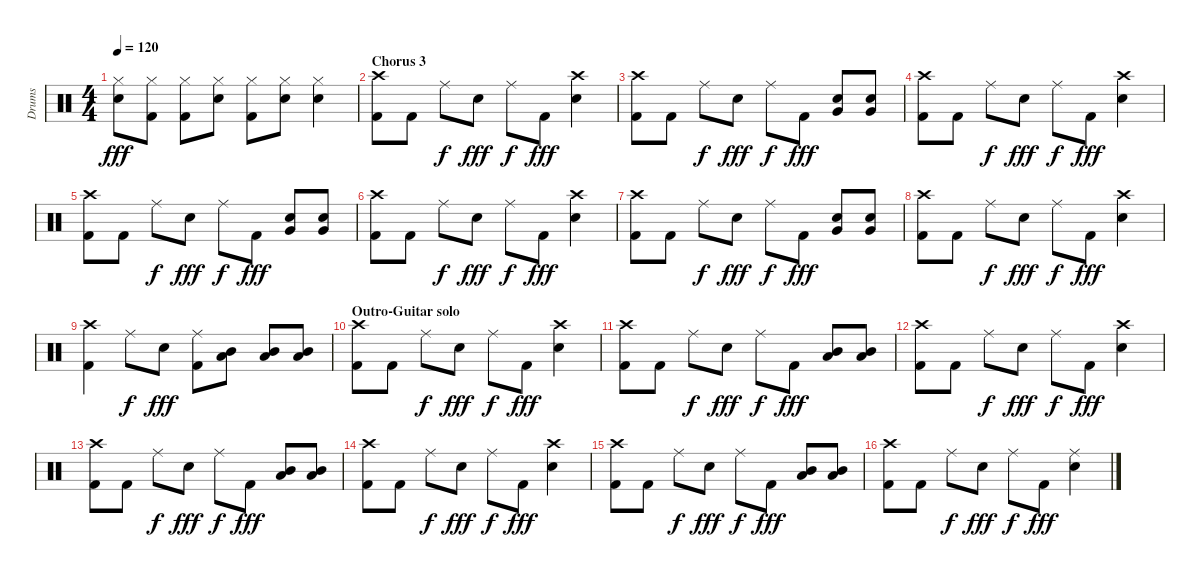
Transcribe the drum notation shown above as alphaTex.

\track ("Drums" "Drums") {instrument percussion}
\staff {score}
\articulation defaults
\ts (4 4)
\tempo 120
\clef neutral
\ks c
("Hi-Hat (closed)" "Snare (hit) 2").8{dy fff} ("Hi-Hat (closed)" "Kick (hit) 2").8 ("Hi-Hat (closed)" "Kick (hit) 2").8 ("Hi-Hat (closed)" "Snare (hit) 2").8 ("Hi-Hat (closed)" "Kick (hit) 2").8 ("Hi-Hat (closed)" "Snare (hit) 2").8 ("Hi-Hat (closed)" "Snare (hit) 2").4 |
\section ("" "Chorus 3")
("Crash high (hit)" "Kick (hit) 2").8 "Kick (hit) 2".8 "Ride (middle)".8{dy f} "Snare (hit) 2".8{dy fff} "Ride (middle)".8{dy f} "Kick (hit) 2".8{dy fff} ("Crash high (hit)" "Snare (hit) 2").4 |
("Crash high (hit)" "Kick (hit) 2").8 "Kick (hit) 2".8 "Ride (middle)".8{dy f} "Snare (hit) 2".8{dy fff} "Ride (middle)".8{dy f} "Kick (hit) 2".8{dy fff} ("Snare (hit) 2" "Very Low Tom (hit)").8 ("Snare (hit) 2" "Very Low Tom (hit)").8 |
("Crash high (hit)" "Kick (hit) 2").8 "Kick (hit) 2".8 "Ride (middle)".8{dy f} "Snare (hit) 2".8{dy fff} "Ride (middle)".8{dy f} "Kick (hit) 2".8{dy fff} ("Crash high (hit)" "Snare (hit) 2").4 |
("Crash high (hit)" "Kick (hit) 2").8 "Kick (hit) 2".8 "Ride (middle)".8{dy f} "Snare (hit) 2".8{dy fff} "Ride (middle)".8{dy f} "Kick (hit) 2".8{dy fff} ("Snare (hit) 2" "Very Low Tom (hit)").8 ("Snare (hit) 2" "Very Low Tom (hit)").8 |
("Crash high (hit)" "Kick (hit) 2").8 "Kick (hit) 2".8 "Ride (middle)".8{dy f} "Snare (hit) 2".8{dy fff} "Ride (middle)".8{dy f} "Kick (hit) 2".8{dy fff} ("Crash high (hit)" "Snare (hit) 2").4 |
("Crash high (hit)" "Kick (hit) 2").8 "Kick (hit) 2".8 "Ride (middle)".8{dy f} "Snare (hit) 2".8{dy fff} "Ride (middle)".8{dy f} "Kick (hit) 2".8{dy fff} ("Snare (hit) 2" "Very Low Tom (hit)").8 ("Snare (hit) 2" "Very Low Tom (hit)").8 |
("Crash high (hit)" "Kick (hit) 2").8 "Kick (hit) 2".8 "Ride (middle)".8{dy f} "Snare (hit) 2".8{dy fff} "Ride (middle)".8{dy f} "Kick (hit) 2".8{dy fff} ("Crash high (hit)" "Snare (hit) 2").4 |
("Crash high (hit)" "Kick (hit) 2").4 "Ride (middle)".8{dy f} "Snare (hit) 2".8{dy fff} ("Ride (middle)" "Kick (hit) 2").8 ("Mid Tom (hit)" "Low Tom (hit)").8 ("Mid Tom (hit)" "Low Tom (hit)").8 ("Mid Tom (hit)" "Low Tom (hit)").8 |
\section ("" "Outro-Guitar solo")
("Crash high (hit)" "Kick (hit) 2").8 "Kick (hit) 2".8 "Ride (middle)".8{dy f} "Snare (hit) 2".8{dy fff} "Ride (middle)".8{dy f} "Kick (hit) 2".8{dy fff} ("Crash high (hit)" "Snare (hit) 2").4 |
("Crash high (hit)" "Kick (hit) 2").8 "Kick (hit) 2".8 "Ride (middle)".8{dy f} "Snare (hit) 2".8{dy fff} "Ride (middle)".8{dy f} "Kick (hit) 2".8{dy fff} ("Mid Tom (hit)" "Low Tom (hit)").8 ("Mid Tom (hit)" "Low Tom (hit)").8 |
("Crash high (hit)" "Kick (hit) 2").8 "Kick (hit) 2".8 "Ride (middle)".8{dy f} "Snare (hit) 2".8{dy fff} "Ride (middle)".8{dy f} "Kick (hit) 2".8{dy fff} ("Crash high (hit)" "Snare (hit) 2").4 |
("Crash high (hit)" "Kick (hit) 2").8 "Kick (hit) 2".8 "Ride (middle)".8{dy f} "Snare (hit) 2".8{dy fff} "Ride (middle)".8{dy f} "Kick (hit) 2".8{dy fff} ("Mid Tom (hit)" "Low Tom (hit)").8 ("Mid Tom (hit)" "Low Tom (hit)").8 |
("Crash high (hit)" "Kick (hit) 2").8 "Kick (hit) 2".8 "Ride (middle)".8{dy f} "Snare (hit) 2".8{dy fff} "Ride (middle)".8{dy f} "Kick (hit) 2".8{dy fff} ("Crash high (hit)" "Snare (hit) 2").4 |
("Crash high (hit)" "Kick (hit) 2").8 "Kick (hit) 2".8 "Ride (middle)".8{dy f} "Snare (hit) 2".8{dy fff} "Ride (middle)".8{dy f} "Kick (hit) 2".8{dy fff} ("Mid Tom (hit)" "Low Tom (hit)").8 ("Mid Tom (hit)" "Low Tom (hit)").8 |
("Crash high (hit)" "Kick (hit) 2").8 "Kick (hit) 2".8 "Ride (middle)".8{dy f} "Snare (hit) 2".8{dy fff} "Ride (middle)".8{dy f} "Kick (hit) 2".8{dy fff} ("Ride (middle)" "Snare (hit) 2").4
